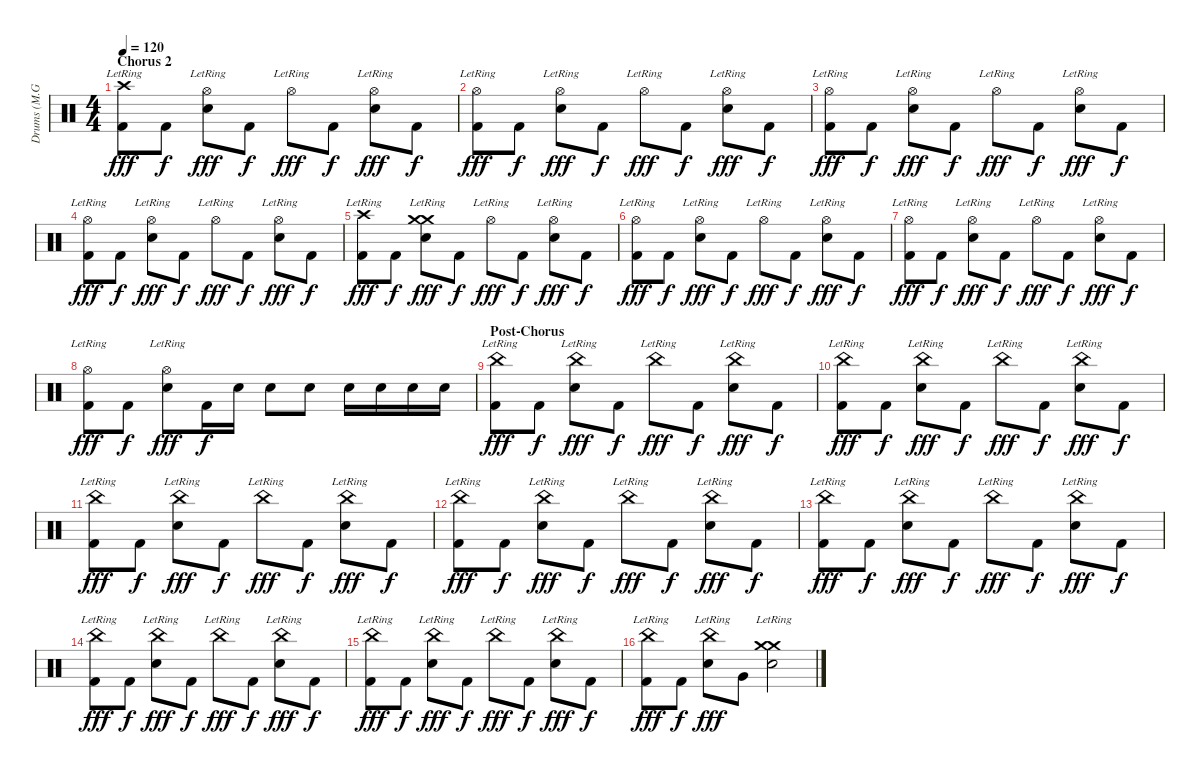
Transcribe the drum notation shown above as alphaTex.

\track ("Drums (M.Grosskopf)" "Drums (M.G") {instrument percussion}
\staff {score}
\articulation defaults
\ts (4 4)
\section ("" "Chorus 2")
\tempo 120
\clef neutral
\ks c
("Crash high (hit)"{lr} "Kick (hit) 2").8{dy fff} "Kick (hit) 2".8{dy f} ("Hi-Hat (open)"{lr} "Electric Snare (hit)").8{dy fff} "Kick (hit) 2".8{dy f} "Hi-Hat (open)"{lr}.8{dy fff} "Kick (hit) 2".8{dy f} ("Hi-Hat (open)"{lr} "Electric Snare (hit)").8{dy fff} "Kick (hit) 2".8{dy f} |
("Hi-Hat (open)"{lr} "Kick (hit) 2").8{dy fff} "Kick (hit) 2".8{dy f} ("Hi-Hat (open)"{lr} "Electric Snare (hit)").8{dy fff} "Kick (hit) 2".8{dy f} "Hi-Hat (open)"{lr}.8{dy fff} "Kick (hit) 2".8{dy f} ("Hi-Hat (open)"{lr} "Electric Snare (hit)").8{dy fff} "Kick (hit) 2".8{dy f} |
("Hi-Hat (open)"{lr} "Kick (hit) 2").8{dy fff} "Kick (hit) 2".8{dy f} ("Hi-Hat (open)"{lr} "Electric Snare (hit)").8{dy fff} "Kick (hit) 2".8{dy f} "Hi-Hat (open)"{lr}.8{dy fff} "Kick (hit) 2".8{dy f} ("Hi-Hat (open)"{lr} "Electric Snare (hit)").8{dy fff} "Kick (hit) 2".8{dy f} |
("Hi-Hat (open)"{lr} "Kick (hit) 2").8{dy fff} "Kick (hit) 2".8{dy f} ("Hi-Hat (open)"{lr} "Electric Snare (hit)").8{dy fff} "Kick (hit) 2".8{dy f} "Hi-Hat (open)"{lr}.8{dy fff} "Kick (hit) 2".8{dy f} ("Hi-Hat (open)"{lr} "Electric Snare (hit)").8{dy fff} "Kick (hit) 2".8{dy f} |
("Crash high (hit)"{lr} "Kick (hit) 2").8{dy fff} "Kick (hit) 2".8{dy f} ("Crash medium (hit)"{lr} "Crash medium (hit)"{lr} "Electric Snare (hit)").8{dy fff} "Kick (hit) 2".8{dy f} "Hi-Hat (open)"{lr}.8{dy fff} "Kick (hit) 2".8{dy f} ("Hi-Hat (open)"{lr} "Electric Snare (hit)").8{dy fff} "Kick (hit) 2".8{dy f} |
("Hi-Hat (open)"{lr} "Kick (hit) 2").8{dy fff} "Kick (hit) 2".8{dy f} ("Hi-Hat (open)"{lr} "Electric Snare (hit)").8{dy fff} "Kick (hit) 2".8{dy f} "Hi-Hat (open)"{lr}.8{dy fff} "Kick (hit) 2".8{dy f} ("Hi-Hat (open)"{lr} "Electric Snare (hit)").8{dy fff} "Kick (hit) 2".8{dy f} |
("Hi-Hat (open)"{lr} "Kick (hit) 2").8{dy fff} "Kick (hit) 2".8{dy f} ("Hi-Hat (open)"{lr} "Electric Snare (hit)").8{dy fff} "Kick (hit) 2".8{dy f} "Hi-Hat (open)"{lr}.8{dy fff} "Kick (hit) 2".8{dy f} ("Hi-Hat (open)"{lr} "Electric Snare (hit)").8{dy fff} "Kick (hit) 2".8{dy f} |
("Hi-Hat (open)"{lr} "Kick (hit) 2").8{dy fff} "Kick (hit) 2".8{dy f} ("Hi-Hat (open)"{lr} "Electric Snare (hit)").8{dy fff} "Kick (hit) 2".16{dy f} "Electric Snare (hit)".16 "Electric Snare (hit)".8 "Electric Snare (hit)".8 "Electric Snare (hit)".16 "Electric Snare (hit)".16 "Electric Snare (hit)".16 "Electric Snare (hit)".16 |
\section ("" "Post-Chorus")
("China (hit)"{lr} "Kick (hit) 2").8{dy fff} "Kick (hit) 2".8{dy f} ("China (hit)"{lr} "Electric Snare (hit)").8{dy fff} "Kick (hit) 2".8{dy f} "China (hit)"{lr}.8{dy fff} "Kick (hit) 2".8{dy f} ("China (hit)"{lr} "Electric Snare (hit)").8{dy fff} "Kick (hit) 2".8{dy f} |
("China (hit)"{lr} "Kick (hit) 2").8{dy fff} "Kick (hit) 2".8{dy f} ("China (hit)"{lr} "Electric Snare (hit)").8{dy fff} "Kick (hit) 2".8{dy f} "China (hit)"{lr}.8{dy fff} "Kick (hit) 2".8{dy f} ("China (hit)"{lr} "Electric Snare (hit)").8{dy fff} "Kick (hit) 2".8{dy f} |
("China (hit)"{lr} "Kick (hit) 2").8{dy fff} "Kick (hit) 2".8{dy f} ("China (hit)"{lr} "Electric Snare (hit)").8{dy fff} "Kick (hit) 2".8{dy f} "China (hit)"{lr}.8{dy fff} "Kick (hit) 2".8{dy f} ("China (hit)"{lr} "Electric Snare (hit)").8{dy fff} "Kick (hit) 2".8{dy f} |
("China (hit)"{lr} "Kick (hit) 2").8{dy fff} "Kick (hit) 2".8{dy f} ("China (hit)"{lr} "Electric Snare (hit)").8{dy fff} "Kick (hit) 2".8{dy f} "China (hit)"{lr}.8{dy fff} "Kick (hit) 2".8{dy f} ("China (hit)"{lr} "Electric Snare (hit)").8{dy fff} "Kick (hit) 2".8{dy f} |
("China (hit)"{lr} "Kick (hit) 2").8{dy fff} "Kick (hit) 2".8{dy f} ("China (hit)"{lr} "Electric Snare (hit)").8{dy fff} "Kick (hit) 2".8{dy f} "China (hit)"{lr}.8{dy fff} "Kick (hit) 2".8{dy f} ("China (hit)"{lr} "Electric Snare (hit)").8{dy fff} "Kick (hit) 2".8{dy f} |
("China (hit)"{lr} "Kick (hit) 2").8{dy fff} "Kick (hit) 2".8{dy f} ("China (hit)"{lr} "Electric Snare (hit)").8{dy fff} "Kick (hit) 2".8{dy f} "China (hit)"{lr}.8{dy fff} "Kick (hit) 2".8{dy f} ("China (hit)"{lr} "Electric Snare (hit)").8{dy fff} "Kick (hit) 2".8{dy f} |
("China (hit)"{lr} "Kick (hit) 2").8{dy fff} "Kick (hit) 2".8{dy f} ("China (hit)"{lr} "Electric Snare (hit)").8{dy fff} "Kick (hit) 2".8{dy f} "China (hit)"{lr}.8{dy fff} "Kick (hit) 2".8{dy f} ("China (hit)"{lr} "Electric Snare (hit)").8{dy fff} "Kick (hit) 2".8{dy f} |
("China (hit)"{lr} "Kick (hit) 2").8{dy fff} "Kick (hit) 2".8{dy f} ("China (hit)"{lr} "Electric Snare (hit)").8{dy fff} "Very Low Tom (hit)".8 ("Crash medium (hit)"{lr} "Crash medium (hit)"{lr} "Electric Snare (hit)").2
